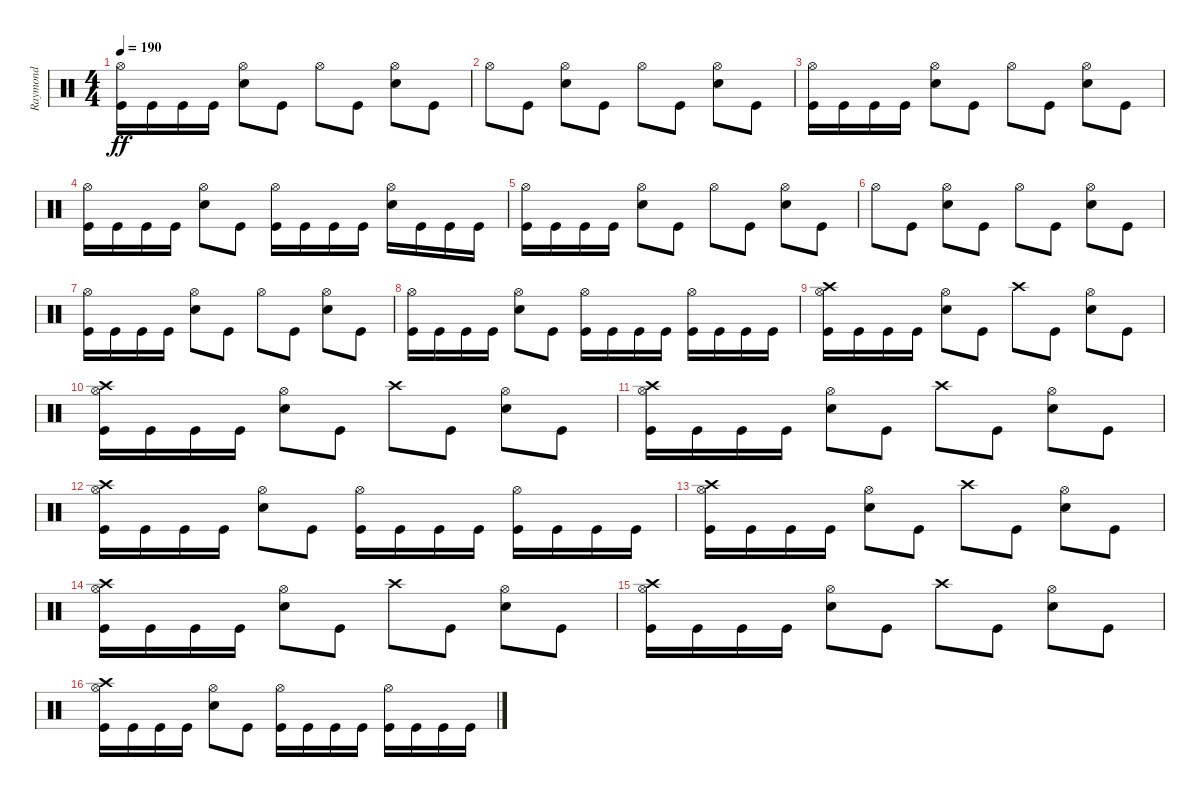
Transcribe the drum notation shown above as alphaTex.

\track ("Raymond" "Raymond") {instrument percussion}
\staff {score}
\articulation defaults
\ts (4 4)
\tempo 190
\clef neutral
\ks c
("Kick (hit)" "Hi-Hat (open)").16{dy ff} "Kick (hit)".16 "Kick (hit)".16 "Kick (hit)".16 ("Snare (hit) 2" "Hi-Hat (open)").8 "Kick (hit)".8 "Hi-Hat (open)".8 "Kick (hit)".8 ("Snare (hit) 2" "Hi-Hat (open)").8 "Kick (hit)".8 |
"Hi-Hat (open)".8 "Kick (hit)".8 ("Snare (hit) 2" "Hi-Hat (open)").8 "Kick (hit)".8 "Hi-Hat (open)".8 "Kick (hit)".8 ("Snare (hit) 2" "Hi-Hat (open)").8 "Kick (hit)".8 |
("Kick (hit)" "Hi-Hat (open)").16 "Kick (hit)".16 "Kick (hit)".16 "Kick (hit)".16 ("Snare (hit) 2" "Hi-Hat (open)").8 "Kick (hit)".8 "Hi-Hat (open)".8 "Kick (hit)".8 ("Snare (hit) 2" "Hi-Hat (open)").8 "Kick (hit)".8 |
("Kick (hit)" "Hi-Hat (open)").16 "Kick (hit)".16 "Kick (hit)".16 "Kick (hit)".16 ("Snare (hit) 2" "Hi-Hat (open)").8 "Kick (hit)".8 ("Kick (hit)" "Hi-Hat (open)").16 "Kick (hit)".16 "Kick (hit)".16 "Kick (hit)".16 ("Snare (hit) 2" "Hi-Hat (open)").16 "Kick (hit)".16 "Kick (hit)".16 "Kick (hit)".16 |
("Kick (hit)" "Hi-Hat (open)").16 "Kick (hit)".16 "Kick (hit)".16 "Kick (hit)".16 ("Snare (hit) 2" "Hi-Hat (open)").8 "Kick (hit)".8 "Hi-Hat (open)".8 "Kick (hit)".8 ("Snare (hit) 2" "Hi-Hat (open)").8 "Kick (hit)".8 |
"Hi-Hat (open)".8 "Kick (hit)".8 ("Snare (hit) 2" "Hi-Hat (open)").8 "Kick (hit)".8 "Hi-Hat (open)".8 "Kick (hit)".8 ("Snare (hit) 2" "Hi-Hat (open)").8 "Kick (hit)".8 |
("Kick (hit)" "Hi-Hat (open)").16 "Kick (hit)".16 "Kick (hit)".16 "Kick (hit)".16 ("Snare (hit) 2" "Hi-Hat (open)").8 "Kick (hit)".8 "Hi-Hat (open)".8 "Kick (hit)".8 ("Snare (hit) 2" "Hi-Hat (open)").8 "Kick (hit)".8 |
("Kick (hit)" "Hi-Hat (open)").16 "Kick (hit)".16 "Kick (hit)".16 "Kick (hit)".16 ("Snare (hit) 2" "Hi-Hat (open)").8 "Kick (hit)".8 ("Kick (hit)" "Hi-Hat (open)").16 "Kick (hit)".16 "Kick (hit)".16 "Kick (hit)".16 ("Kick (hit)" "Hi-Hat (open)").16 "Kick (hit)".16 "Kick (hit)".16 "Kick (hit)".16 |
("Kick (hit)" "Hi-Hat (open)" "Crash high (hit)").16 "Kick (hit)".16 "Kick (hit)".16 "Kick (hit)".16 ("Snare (hit) 2" "Hi-Hat (open)").8 "Kick (hit)".8 "Crash high (hit)".8 "Kick (hit)".8 ("Snare (hit) 2" "Hi-Hat (open)").8 "Kick (hit)".8 |
("Kick (hit)" "Hi-Hat (open)" "Crash high (hit)").16 "Kick (hit)".16 "Kick (hit)".16 "Kick (hit)".16 ("Snare (hit) 2" "Hi-Hat (open)").8 "Kick (hit)".8 "Crash high (hit)".8 "Kick (hit)".8 ("Snare (hit) 2" "Hi-Hat (open)").8 "Kick (hit)".8 |
("Kick (hit)" "Hi-Hat (open)" "Crash high (hit)").16 "Kick (hit)".16 "Kick (hit)".16 "Kick (hit)".16 ("Snare (hit) 2" "Hi-Hat (open)").8 "Kick (hit)".8 "Crash high (hit)".8 "Kick (hit)".8 ("Snare (hit) 2" "Hi-Hat (open)").8 "Kick (hit)".8 |
("Kick (hit)" "Hi-Hat (open)" "Crash high (hit)").16 "Kick (hit)".16 "Kick (hit)".16 "Kick (hit)".16 ("Snare (hit) 2" "Hi-Hat (open)").8 "Kick (hit)".8 ("Kick (hit)" "Hi-Hat (open)").16 "Kick (hit)".16 "Kick (hit)".16 "Kick (hit)".16 ("Kick (hit)" "Hi-Hat (open)").16 "Kick (hit)".16 "Kick (hit)".16 "Kick (hit)".16 |
("Kick (hit)" "Hi-Hat (open)" "Crash high (hit)").16 "Kick (hit)".16 "Kick (hit)".16 "Kick (hit)".16 ("Snare (hit) 2" "Hi-Hat (open)").8 "Kick (hit)".8 "Crash high (hit)".8 "Kick (hit)".8 ("Snare (hit) 2" "Hi-Hat (open)").8 "Kick (hit)".8 |
("Kick (hit)" "Hi-Hat (open)" "Crash high (hit)").16 "Kick (hit)".16 "Kick (hit)".16 "Kick (hit)".16 ("Snare (hit) 2" "Hi-Hat (open)").8 "Kick (hit)".8 "Crash high (hit)".8 "Kick (hit)".8 ("Snare (hit) 2" "Hi-Hat (open)").8 "Kick (hit)".8 |
("Kick (hit)" "Hi-Hat (open)" "Crash high (hit)").16 "Kick (hit)".16 "Kick (hit)".16 "Kick (hit)".16 ("Snare (hit) 2" "Hi-Hat (open)").8 "Kick (hit)".8 "Crash high (hit)".8 "Kick (hit)".8 ("Snare (hit) 2" "Hi-Hat (open)").8 "Kick (hit)".8 |
("Kick (hit)" "Hi-Hat (open)" "Crash high (hit)").16 "Kick (hit)".16 "Kick (hit)".16 "Kick (hit)".16 ("Snare (hit) 2" "Hi-Hat (open)").8 "Kick (hit)".8 ("Kick (hit)" "Hi-Hat (open)").16 "Kick (hit)".16 "Kick (hit)".16 "Kick (hit)".16 ("Kick (hit)" "Hi-Hat (open)").16 "Kick (hit)".16 "Kick (hit)".16 "Kick (hit)".16
